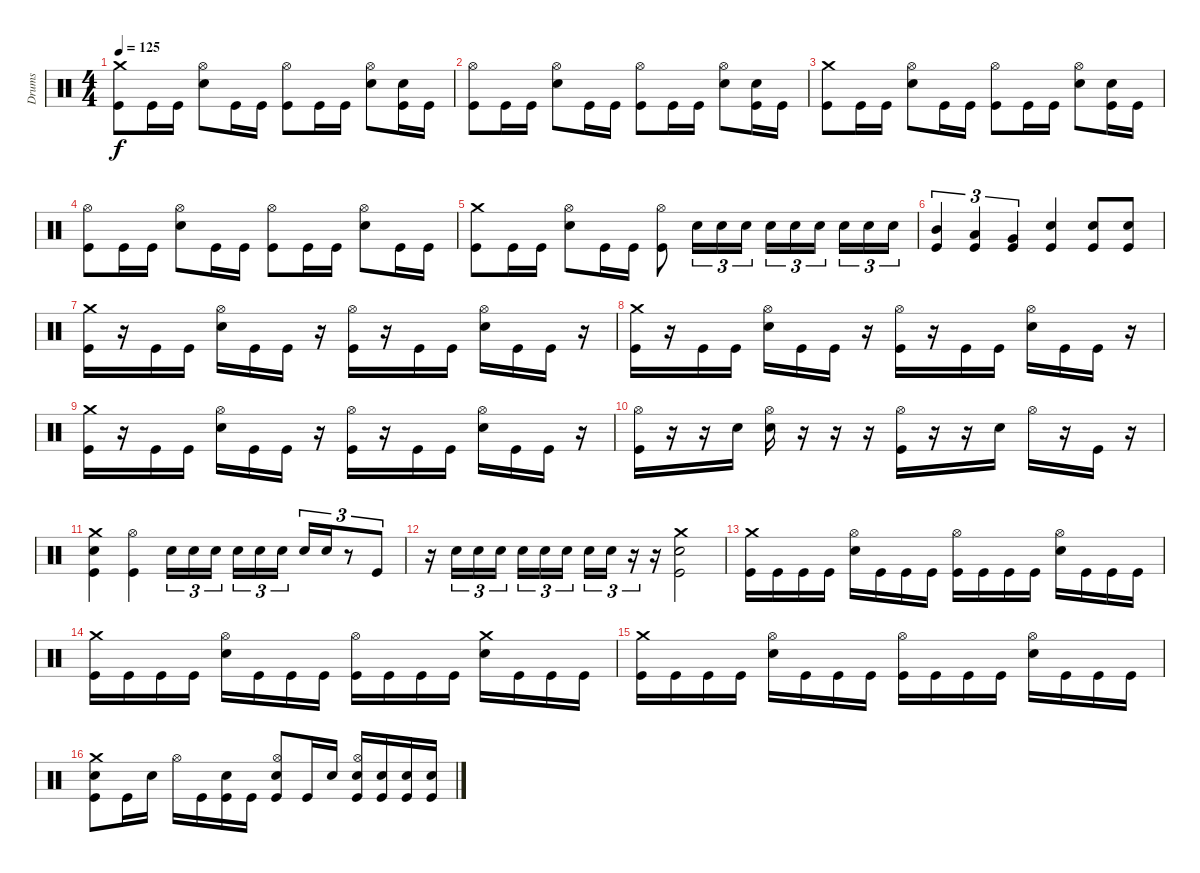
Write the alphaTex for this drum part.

\track ("Drums" "Drums") {instrument percussion}
\staff {score}
\articulation defaults
\ts (4 4)
\tempo 125
\clef neutral
\ks c
("Crash medium (hit)" "Kick (hit)").8{dy f} "Kick (hit)".16 "Kick (hit)".16 ("Hi-Hat (open)" "Electric Snare (hit)").8 "Kick (hit)".16 "Kick (hit)".16 ("Hi-Hat (open)" "Kick (hit)").8 "Kick (hit)".16 "Kick (hit)".16 ("Hi-Hat (open)" "Electric Snare (hit)").8 ("Electric Snare (hit)" "Kick (hit)").16 "Kick (hit)".16 |
("Hi-Hat (open)" "Kick (hit)").8 "Kick (hit)".16 "Kick (hit)".16 ("Hi-Hat (open)" "Electric Snare (hit)").8 "Kick (hit)".16 "Kick (hit)".16 ("Hi-Hat (open)" "Kick (hit)").8 "Kick (hit)".16 "Kick (hit)".16 ("Hi-Hat (open)" "Electric Snare (hit)").8 ("Electric Snare (hit)" "Kick (hit)").16 "Kick (hit)".16 |
("Crash medium (hit)" "Kick (hit)").8 "Kick (hit)".16 "Kick (hit)".16 ("Hi-Hat (open)" "Electric Snare (hit)").8 "Kick (hit)".16 "Kick (hit)".16 ("Hi-Hat (open)" "Kick (hit)").8 "Kick (hit)".16 "Kick (hit)".16 ("Hi-Hat (open)" "Electric Snare (hit)").8 ("Electric Snare (hit)" "Kick (hit)").16 "Kick (hit)".16 |
("Hi-Hat (open)" "Kick (hit)").8 "Kick (hit)".16 "Kick (hit)".16 ("Hi-Hat (open)" "Electric Snare (hit)").8 "Kick (hit)".16 "Kick (hit)".16 ("Hi-Hat (open)" "Kick (hit)").8 "Kick (hit)".16 "Kick (hit)".16 ("Hi-Hat (open)" "Electric Snare (hit)").8 "Kick (hit)".16 "Kick (hit)".16 |
("Crash medium (hit)" "Kick (hit)").8 "Kick (hit)".16 "Kick (hit)".16 ("Hi-Hat (open)" "Electric Snare (hit)").8 "Kick (hit)".16 "Kick (hit)".16 ("Hi-Hat (open)" "Kick (hit)").8 "Electric Snare (hit)".16{tu (3 2)} "Electric Snare (hit)".16{tu (3 2)} "Electric Snare (hit)".16{tu (3 2)} "Electric Snare (hit)".16{tu (3 2)} "Electric Snare (hit)".16{tu (3 2)} "Electric Snare (hit)".16{tu (3 2)} "Electric Snare (hit)".16{tu (3 2)} "Electric Snare (hit)".16{tu (3 2)} "Electric Snare (hit)".16{tu (3 2)} |
("Mid Tom (hit)" "Kick (hit)").4{tu (3 2)} ("Low Tom (hit)" "Kick (hit)").4{tu (3 2)} ("Very Low Tom (hit)" "Kick (hit)").4{tu (3 2)} ("Electric Snare (hit)" "Kick (hit)").4 ("Electric Snare (hit)" "Kick (hit)").8 ("Electric Snare (hit)" "Kick (hit)").8 |
("Crash medium (hit)" "Kick (hit)").16 r.16 "Kick (hit)".16 "Kick (hit)".16 ("Hi-Hat (open)" "Electric Snare (hit)").16 "Kick (hit)".16 "Kick (hit)".16 r.16 ("Hi-Hat (open)" "Kick (hit)").16 r.16 "Kick (hit)".16 "Kick (hit)".16 ("Hi-Hat (open)" "Electric Snare (hit)").16 "Kick (hit)".16 "Kick (hit)".16 r.16 |
("Crash medium (hit)" "Kick (hit)").16 r.16 "Kick (hit)".16 "Kick (hit)".16 ("Hi-Hat (open)" "Electric Snare (hit)").16 "Kick (hit)".16 "Kick (hit)".16 r.16 ("Hi-Hat (open)" "Kick (hit)").16 r.16 "Kick (hit)".16 "Kick (hit)".16 ("Hi-Hat (open)" "Electric Snare (hit)").16 "Kick (hit)".16 "Kick (hit)".16 r.16 |
("Crash medium (hit)" "Kick (hit)").16 r.16 "Kick (hit)".16 "Kick (hit)".16 ("Hi-Hat (open)" "Electric Snare (hit)").16 "Kick (hit)".16 "Kick (hit)".16 r.16 ("Hi-Hat (open)" "Kick (hit)").16 r.16 "Kick (hit)".16 "Kick (hit)".16 ("Hi-Hat (open)" "Electric Snare (hit)").16 "Kick (hit)".16 "Kick (hit)".16 r.16 |
("Hi-Hat (open)" "Kick (hit)").16 r.16 r.16 "Electric Snare (hit)".16 ("Hi-Hat (open)" "Electric Snare (hit)").16 r.16 r.16 r.16 ("Hi-Hat (open)" "Kick (hit)").16 r.16 r.16 "Electric Snare (hit)".16 "Hi-Hat (open)".16 r.16 "Kick (hit)".16 r.16 |
("Crash medium (hit)" "Electric Snare (hit)" "Kick (hit)").4 ("Hi-Hat (open)" "Kick (hit)").4 "Electric Snare (hit)".16{tu (3 2)} "Electric Snare (hit)".16{tu (3 2)} "Electric Snare (hit)".16{tu (3 2)} "Electric Snare (hit)".16{tu (3 2)} "Electric Snare (hit)".16{tu (3 2)} "Electric Snare (hit)".16{tu (3 2)} "Electric Snare (hit)".16{tu (3 2)} "Electric Snare (hit)".16{tu (3 2)} r.8{tu (3 2)} "Kick (hit)".8{tu (3 2)} |
r.16 "Electric Snare (hit)".16{tu (3 2)} "Electric Snare (hit)".16{tu (3 2)} "Electric Snare (hit)".16{tu (3 2)} "Electric Snare (hit)".16{tu (3 2)} "Electric Snare (hit)".16{tu (3 2)} "Electric Snare (hit)".16{tu (3 2)} "Electric Snare (hit)".16{tu (3 2)} "Electric Snare (hit)".16{tu (3 2)} r.16{tu (3 2)} r.16 ("Crash medium (hit)" "Electric Snare (hit)" "Kick (hit)").2 |
("Crash medium (hit)" "Kick (hit)").16 "Kick (hit)".16 "Kick (hit)".16 "Kick (hit)".16 ("Hi-Hat (open)" "Electric Snare (hit)").16 "Kick (hit)".16 "Kick (hit)".16 "Kick (hit)".16 ("Hi-Hat (open)" "Kick (hit)").16 "Kick (hit)".16 "Kick (hit)".16 "Kick (hit)".16 ("Hi-Hat (open)" "Electric Snare (hit)").16 "Kick (hit)".16 "Kick (hit)".16 "Kick (hit)".16 |
("Crash medium (hit)" "Kick (hit)").16 "Kick (hit)".16 "Kick (hit)".16 "Kick (hit)".16 ("Hi-Hat (open)" "Electric Snare (hit)").16 "Kick (hit)".16 "Kick (hit)".16 "Kick (hit)".16 ("Hi-Hat (open)" "Kick (hit)").16 "Kick (hit)".16 "Kick (hit)".16 "Kick (hit)".16 ("Crash medium (hit)" "Electric Snare (hit)").16 "Kick (hit)".16 "Kick (hit)".16 "Kick (hit)".16 |
("Crash medium (hit)" "Kick (hit)").16 "Kick (hit)".16 "Kick (hit)".16 "Kick (hit)".16 ("Hi-Hat (open)" "Electric Snare (hit)").16 "Kick (hit)".16 "Kick (hit)".16 "Kick (hit)".16 ("Hi-Hat (open)" "Kick (hit)").16 "Kick (hit)".16 "Kick (hit)".16 "Kick (hit)".16 ("Hi-Hat (open)" "Electric Snare (hit)").16 "Kick (hit)".16 "Kick (hit)".16 "Kick (hit)".16 |
("Crash medium (hit)" "Electric Snare (hit)" "Kick (hit)").8 "Kick (hit)".16 "Electric Snare (hit)".16 "Hi-Hat (open)".16 "Kick (hit)".16 ("Electric Snare (hit)" "Kick (hit)").16 "Kick (hit)".16 ("Hi-Hat (open)" "Electric Snare (hit)" "Kick (hit)").8 "Kick (hit)".16 "Electric Snare (hit)".16 ("Hi-Hat (open)" "Electric Snare (hit)" "Kick (hit)").16 ("Electric Snare (hit)" "Kick (hit)").16 ("Electric Snare (hit)" "Kick (hit)").16 ("Electric Snare (hit)" "Kick (hit)").16
